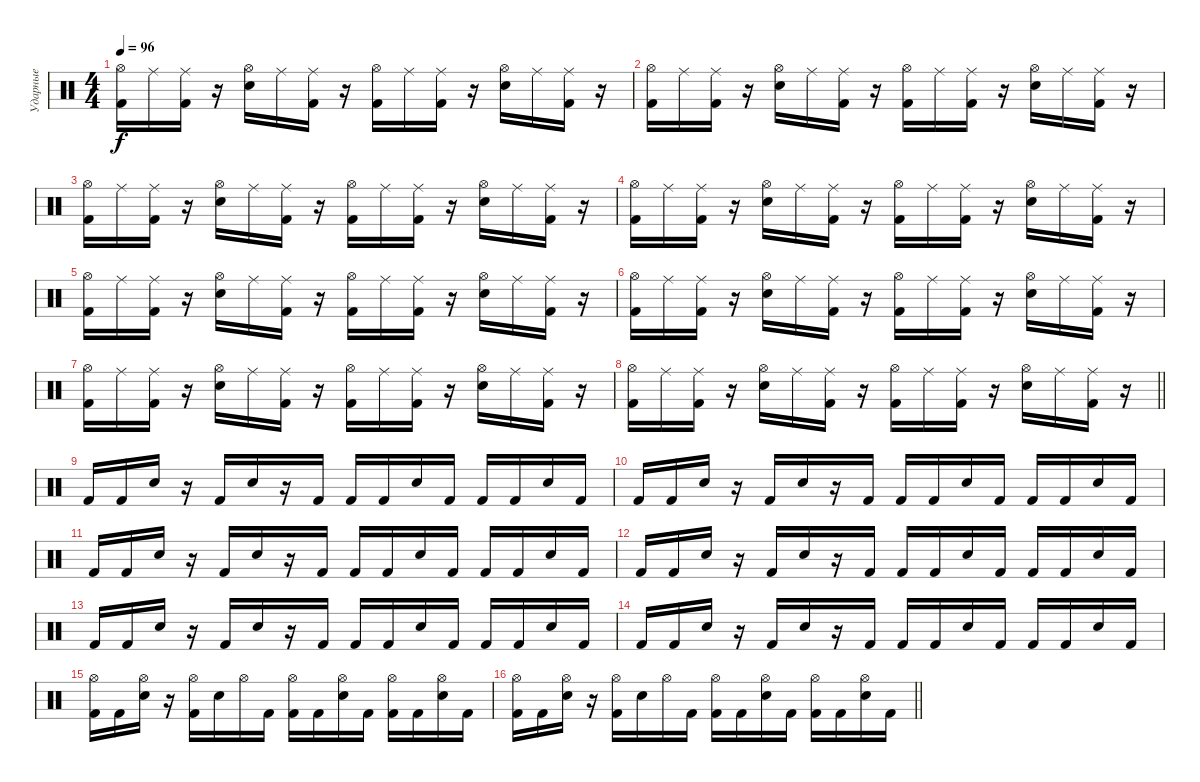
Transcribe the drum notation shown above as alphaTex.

\track ("Ударные" "Ударные") {instrument percussion}
\staff {score}
\articulation defaults
\ts (4 4)
\section ("" "")
\tempo 96
\clef neutral
\ks c
("Hi-Hat (open)" "Kick (hit) 2").16{dy f} "Ride (middle)".16 ("Ride (middle)" "Kick (hit) 2").16 r.16 ("Hi-Hat (open)" "Electric Snare (hit)").16 "Ride (middle)".16 ("Ride (middle)" "Kick (hit) 2").16 r.16 ("Hi-Hat (open)" "Kick (hit) 2").16 "Ride (middle)".16 ("Ride (middle)" "Kick (hit) 2").16 r.16 ("Hi-Hat (open)" "Electric Snare (hit)").16 "Ride (middle)".16 ("Ride (middle)" "Kick (hit) 2").16 r.16 |
("Hi-Hat (open)" "Kick (hit) 2").16 "Ride (middle)".16 ("Ride (middle)" "Kick (hit) 2").16 r.16 ("Hi-Hat (open)" "Electric Snare (hit)").16 "Ride (middle)".16 ("Ride (middle)" "Kick (hit) 2").16 r.16 ("Hi-Hat (open)" "Kick (hit) 2").16 "Ride (middle)".16 ("Ride (middle)" "Kick (hit) 2").16 r.16 ("Hi-Hat (open)" "Electric Snare (hit)").16 "Ride (middle)".16 ("Ride (middle)" "Kick (hit) 2").16 r.16 |
("Hi-Hat (open)" "Kick (hit) 2").16 "Ride (middle)".16 ("Ride (middle)" "Kick (hit) 2").16 r.16 ("Hi-Hat (open)" "Electric Snare (hit)").16 "Ride (middle)".16 ("Ride (middle)" "Kick (hit) 2").16 r.16 ("Hi-Hat (open)" "Kick (hit) 2").16 "Ride (middle)".16 ("Ride (middle)" "Kick (hit) 2").16 r.16 ("Hi-Hat (open)" "Electric Snare (hit)").16 "Ride (middle)".16 ("Ride (middle)" "Kick (hit) 2").16 r.16 |
("Hi-Hat (open)" "Kick (hit) 2").16 "Ride (middle)".16 ("Ride (middle)" "Kick (hit) 2").16 r.16 ("Hi-Hat (open)" "Electric Snare (hit)").16 "Ride (middle)".16 ("Ride (middle)" "Kick (hit) 2").16 r.16 ("Hi-Hat (open)" "Kick (hit) 2").16 "Ride (middle)".16 ("Ride (middle)" "Kick (hit) 2").16 r.16 ("Hi-Hat (open)" "Electric Snare (hit)").16 "Ride (middle)".16 ("Ride (middle)" "Kick (hit) 2").16 r.16 |
("Hi-Hat (open)" "Kick (hit) 2").16 "Ride (middle)".16 ("Ride (middle)" "Kick (hit) 2").16 r.16 ("Hi-Hat (open)" "Electric Snare (hit)").16 "Ride (middle)".16 ("Ride (middle)" "Kick (hit) 2").16 r.16 ("Hi-Hat (open)" "Kick (hit) 2").16 "Ride (middle)".16 ("Ride (middle)" "Kick (hit) 2").16 r.16 ("Hi-Hat (open)" "Electric Snare (hit)").16 "Ride (middle)".16 ("Ride (middle)" "Kick (hit) 2").16 r.16 |
("Hi-Hat (open)" "Kick (hit) 2").16 "Ride (middle)".16 ("Ride (middle)" "Kick (hit) 2").16 r.16 ("Hi-Hat (open)" "Electric Snare (hit)").16 "Ride (middle)".16 ("Ride (middle)" "Kick (hit) 2").16 r.16 ("Hi-Hat (open)" "Kick (hit) 2").16 "Ride (middle)".16 ("Ride (middle)" "Kick (hit) 2").16 r.16 ("Hi-Hat (open)" "Electric Snare (hit)").16 "Ride (middle)".16 ("Ride (middle)" "Kick (hit) 2").16 r.16 |
("Hi-Hat (open)" "Kick (hit) 2").16 "Ride (middle)".16 ("Ride (middle)" "Kick (hit) 2").16 r.16 ("Hi-Hat (open)" "Electric Snare (hit)").16 "Ride (middle)".16 ("Ride (middle)" "Kick (hit) 2").16 r.16 ("Hi-Hat (open)" "Kick (hit) 2").16 "Ride (middle)".16 ("Ride (middle)" "Kick (hit) 2").16 r.16 ("Hi-Hat (open)" "Electric Snare (hit)").16 "Ride (middle)".16 ("Ride (middle)" "Kick (hit) 2").16 r.16 |
\barLineRight lightlight
("Hi-Hat (open)" "Kick (hit) 2").16 "Ride (middle)".16 ("Ride (middle)" "Kick (hit) 2").16 r.16 ("Hi-Hat (open)" "Electric Snare (hit)").16 "Ride (middle)".16 ("Ride (middle)" "Kick (hit) 2").16 r.16 ("Hi-Hat (open)" "Kick (hit) 2").16 "Ride (middle)".16 ("Ride (middle)" "Kick (hit) 2").16 r.16 ("Hi-Hat (open)" "Electric Snare (hit)").16 "Ride (middle)".16 ("Ride (middle)" "Kick (hit) 2").16 r.16 |
\section ("" "")
"Kick (hit) 2".16 "Kick (hit) 2".16 "Electric Snare (hit)".16 r.16 "Kick (hit) 2".16 "Electric Snare (hit)".16 r.16 "Kick (hit) 2".16 "Kick (hit) 2".16 "Kick (hit) 2".16 "Electric Snare (hit)".16 "Kick (hit) 2".16 "Kick (hit) 2".16 "Kick (hit) 2".16 "Electric Snare (hit)".16 "Kick (hit) 2".16 |
"Kick (hit) 2".16 "Kick (hit) 2".16 "Electric Snare (hit)".16 r.16 "Kick (hit) 2".16 "Electric Snare (hit)".16 r.16 "Kick (hit) 2".16 "Kick (hit) 2".16 "Kick (hit) 2".16 "Electric Snare (hit)".16 "Kick (hit) 2".16 "Kick (hit) 2".16 "Kick (hit) 2".16 "Electric Snare (hit)".16 "Kick (hit) 2".16 |
"Kick (hit) 2".16 "Kick (hit) 2".16 "Electric Snare (hit)".16 r.16 "Kick (hit) 2".16 "Electric Snare (hit)".16 r.16 "Kick (hit) 2".16 "Kick (hit) 2".16 "Kick (hit) 2".16 "Electric Snare (hit)".16 "Kick (hit) 2".16 "Kick (hit) 2".16 "Kick (hit) 2".16 "Electric Snare (hit)".16 "Kick (hit) 2".16 |
"Kick (hit) 2".16 "Kick (hit) 2".16 "Electric Snare (hit)".16 r.16 "Kick (hit) 2".16 "Electric Snare (hit)".16 r.16 "Kick (hit) 2".16 "Kick (hit) 2".16 "Kick (hit) 2".16 "Electric Snare (hit)".16 "Kick (hit) 2".16 "Kick (hit) 2".16 "Kick (hit) 2".16 "Electric Snare (hit)".16 "Kick (hit) 2".16 |
"Kick (hit) 2".16 "Kick (hit) 2".16 "Electric Snare (hit)".16 r.16 "Kick (hit) 2".16 "Electric Snare (hit)".16 r.16 "Kick (hit) 2".16 "Kick (hit) 2".16 "Kick (hit) 2".16 "Electric Snare (hit)".16 "Kick (hit) 2".16 "Kick (hit) 2".16 "Kick (hit) 2".16 "Electric Snare (hit)".16 "Kick (hit) 2".16 |
"Kick (hit) 2".16 "Kick (hit) 2".16 "Electric Snare (hit)".16 r.16 "Kick (hit) 2".16 "Electric Snare (hit)".16 r.16 "Kick (hit) 2".16 "Kick (hit) 2".16 "Kick (hit) 2".16 "Electric Snare (hit)".16 "Kick (hit) 2".16 "Kick (hit) 2".16 "Kick (hit) 2".16 "Electric Snare (hit)".16 "Kick (hit) 2".16 |
("Hi-Hat (open)" "Kick (hit) 2").16 "Kick (hit) 2".16 ("Hi-Hat (open)" "Electric Snare (hit)").16 r.16 ("Hi-Hat (open)" "Kick (hit) 2").16 "Electric Snare (hit)".16 "Hi-Hat (open)".16 "Kick (hit) 2".16 ("Hi-Hat (open)" "Kick (hit) 2").16 "Kick (hit) 2".16 ("Hi-Hat (open)" "Electric Snare (hit)").16 "Kick (hit) 2".16 ("Hi-Hat (open)" "Kick (hit) 2").16 "Kick (hit) 2".16 ("Hi-Hat (open)" "Electric Snare (hit)").16 "Kick (hit) 2".16 |
\barLineRight lightlight
("Hi-Hat (open)" "Kick (hit) 2").16 "Kick (hit) 2".16 ("Hi-Hat (open)" "Electric Snare (hit)").16 r.16 ("Hi-Hat (open)" "Kick (hit) 2").16 "Electric Snare (hit)".16 "Hi-Hat (open)".16 "Kick (hit) 2".16 ("Hi-Hat (open)" "Kick (hit) 2").16 "Kick (hit) 2".16 ("Hi-Hat (open)" "Electric Snare (hit)").16 "Kick (hit) 2".16 ("Hi-Hat (open)" "Kick (hit) 2").16 "Kick (hit) 2".16 ("Hi-Hat (open)" "Electric Snare (hit)").16 "Kick (hit) 2".16
